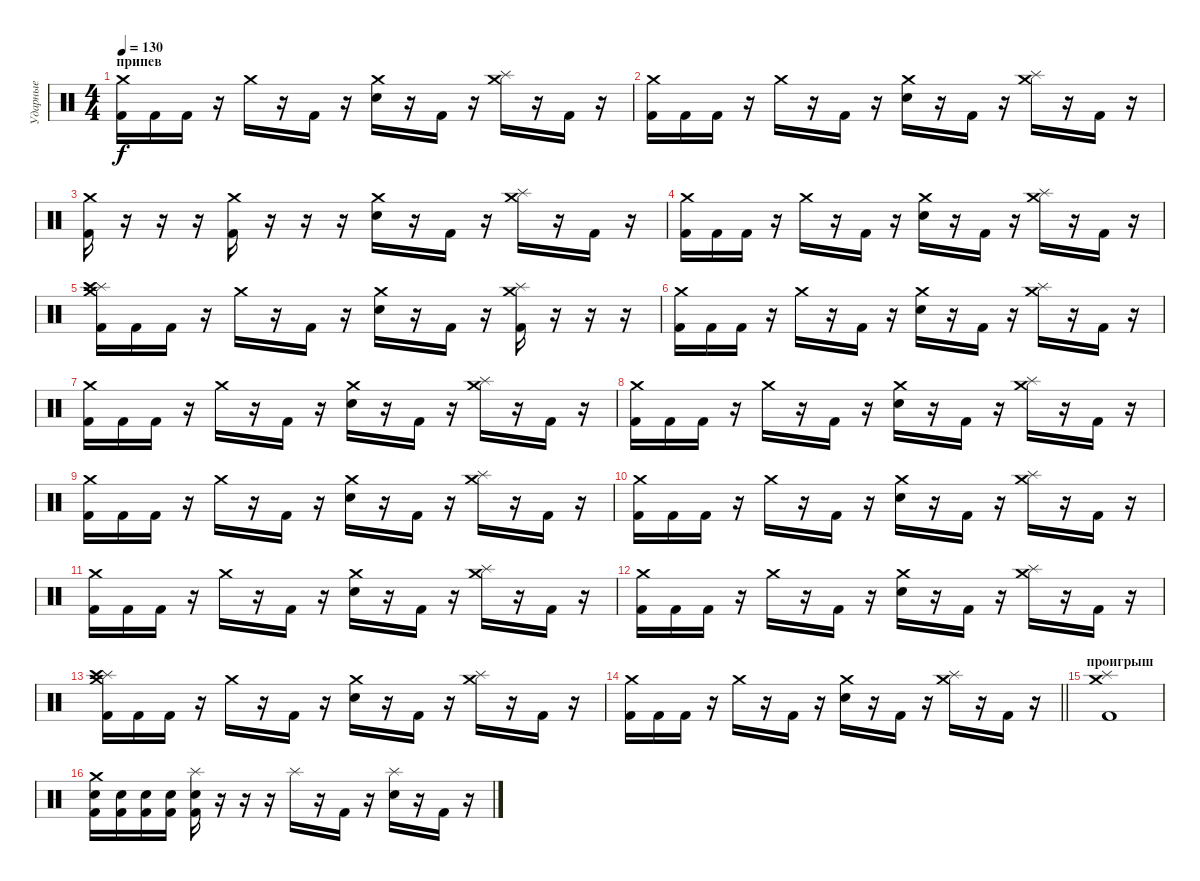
\track ("Ударные" "Ударные") {instrument percussion}
\staff {score}
\articulation defaults
\ts (4 4)
\section ("" "припев")
\tempo 130
\clef neutral
\ks c
("Crash medium (hit)" "Kick (hit) 2").16{dy f} "Kick (hit) 2".16 "Kick (hit) 2".16 r.16 "Crash medium (hit)".16 r.16 "Kick (hit) 2".16 r.16 ("Crash medium (hit)" "Electric Snare (hit)").16 r.16 "Kick (hit) 2".16 r.16 ("Crash medium (hit)" "Splash (hit)").16 r.16 "Kick (hit) 2".16 r.16 |
("Crash medium (hit)" "Kick (hit) 2").16 "Kick (hit) 2".16 "Kick (hit) 2".16 r.16 "Crash medium (hit)".16 r.16 "Kick (hit) 2".16 r.16 ("Crash medium (hit)" "Electric Snare (hit)").16 r.16 "Kick (hit) 2".16 r.16 ("Crash medium (hit)" "Splash (hit)").16 r.16 "Kick (hit) 2".16 r.16 |
("Crash medium (hit)" "Kick (hit) 2").16 r.16 r.16 r.16 ("Crash medium (hit)" "Kick (hit) 2").16 r.16 r.16 r.16 ("Crash medium (hit)" "Electric Snare (hit)").16 r.16 "Kick (hit) 2".16 r.16 ("Crash medium (hit)" "Splash (hit)").16 r.16 "Kick (hit) 2".16 r.16 |
("Crash medium (hit)" "Kick (hit) 2").16 "Kick (hit) 2".16 "Kick (hit) 2".16 r.16 "Crash medium (hit)".16 r.16 "Kick (hit) 2".16 r.16 ("Crash medium (hit)" "Electric Snare (hit)").16 r.16 "Kick (hit) 2".16 r.16 ("Crash medium (hit)" "Splash (hit)").16 r.16 "Kick (hit) 2".16 r.16 |
("Crash medium (hit)" "Splash (hit)" "Crash high (hit)" "Kick (hit) 2").16 "Kick (hit) 2".16 "Kick (hit) 2".16 r.16 "Crash medium (hit)".16 r.16 "Kick (hit) 2".16 r.16 ("Crash medium (hit)" "Electric Snare (hit)").16 r.16 "Kick (hit) 2".16 r.16 ("Crash medium (hit)" "Splash (hit)" "Kick (hit) 2").16 r.16 r.16 r.16 |
("Crash medium (hit)" "Kick (hit) 2").16 "Kick (hit) 2".16 "Kick (hit) 2".16 r.16 "Crash medium (hit)".16 r.16 "Kick (hit) 2".16 r.16 ("Crash medium (hit)" "Electric Snare (hit)").16 r.16 "Kick (hit) 2".16 r.16 ("Crash medium (hit)" "Splash (hit)").16 r.16 "Kick (hit) 2".16 r.16 |
("Crash medium (hit)" "Kick (hit) 2").16 "Kick (hit) 2".16 "Kick (hit) 2".16 r.16 "Crash medium (hit)".16 r.16 "Kick (hit) 2".16 r.16 ("Crash medium (hit)" "Electric Snare (hit)").16 r.16 "Kick (hit) 2".16 r.16 ("Crash medium (hit)" "Splash (hit)").16 r.16 "Kick (hit) 2".16 r.16 |
("Crash medium (hit)" "Kick (hit) 2").16 "Kick (hit) 2".16 "Kick (hit) 2".16 r.16 "Crash medium (hit)".16 r.16 "Kick (hit) 2".16 r.16 ("Crash medium (hit)" "Electric Snare (hit)").16 r.16 "Kick (hit) 2".16 r.16 ("Crash medium (hit)" "Splash (hit)").16 r.16 "Kick (hit) 2".16 r.16 |
("Crash medium (hit)" "Kick (hit) 2").16 "Kick (hit) 2".16 "Kick (hit) 2".16 r.16 "Crash medium (hit)".16 r.16 "Kick (hit) 2".16 r.16 ("Crash medium (hit)" "Electric Snare (hit)").16 r.16 "Kick (hit) 2".16 r.16 ("Crash medium (hit)" "Splash (hit)").16 r.16 "Kick (hit) 2".16 r.16 |
("Crash medium (hit)" "Kick (hit) 2").16 "Kick (hit) 2".16 "Kick (hit) 2".16 r.16 "Crash medium (hit)".16 r.16 "Kick (hit) 2".16 r.16 ("Crash medium (hit)" "Electric Snare (hit)").16 r.16 "Kick (hit) 2".16 r.16 ("Crash medium (hit)" "Splash (hit)").16 r.16 "Kick (hit) 2".16 r.16 |
("Crash medium (hit)" "Kick (hit) 2").16 "Kick (hit) 2".16 "Kick (hit) 2".16 r.16 "Crash medium (hit)".16 r.16 "Kick (hit) 2".16 r.16 ("Crash medium (hit)" "Electric Snare (hit)").16 r.16 "Kick (hit) 2".16 r.16 ("Crash medium (hit)" "Splash (hit)").16 r.16 "Kick (hit) 2".16 r.16 |
("Crash medium (hit)" "Kick (hit) 2").16 "Kick (hit) 2".16 "Kick (hit) 2".16 r.16 "Crash medium (hit)".16 r.16 "Kick (hit) 2".16 r.16 ("Crash medium (hit)" "Electric Snare (hit)").16 r.16 "Kick (hit) 2".16 r.16 ("Crash medium (hit)" "Splash (hit)").16 r.16 "Kick (hit) 2".16 r.16 |
("Crash medium (hit)" "Splash (hit)" "Crash high (hit)" "Kick (hit) 2").16 "Kick (hit) 2".16 "Kick (hit) 2".16 r.16 "Crash medium (hit)".16 r.16 "Kick (hit) 2".16 r.16 ("Crash medium (hit)" "Electric Snare (hit)").16 r.16 "Kick (hit) 2".16 r.16 ("Crash medium (hit)" "Splash (hit)").16 r.16 "Kick (hit) 2".16 r.16 |
\barLineRight lightlight
("Crash medium (hit)" "Kick (hit) 2").16 "Kick (hit) 2".16 "Kick (hit) 2".16 r.16 "Crash medium (hit)".16 r.16 "Kick (hit) 2".16 r.16 ("Crash medium (hit)" "Electric Snare (hit)").16 r.16 "Kick (hit) 2".16 r.16 ("Crash medium (hit)" "Splash (hit)").16 r.16 "Kick (hit) 2".16 r.16 |
\section ("" "проигрыш")
("Crash medium (hit)" "Splash (hit)" "Kick (hit) 2").1 |
("Crash medium (hit)" "Electric Snare (hit)" "Kick (hit) 2").16 ("Electric Snare (hit)" "Kick (hit) 2").16 ("Electric Snare (hit)" "Kick (hit) 2").16 ("Electric Snare (hit)" "Kick (hit) 2").16 ("Splash (hit)" "Electric Snare (hit)" "Kick (hit) 2").16 r.16 r.16 r.16 "Splash (hit)".16 r.16 "Kick (hit) 2".16 r.16 ("Splash (hit)" "Electric Snare (hit)").16 r.16 "Kick (hit) 2".16 r.16
